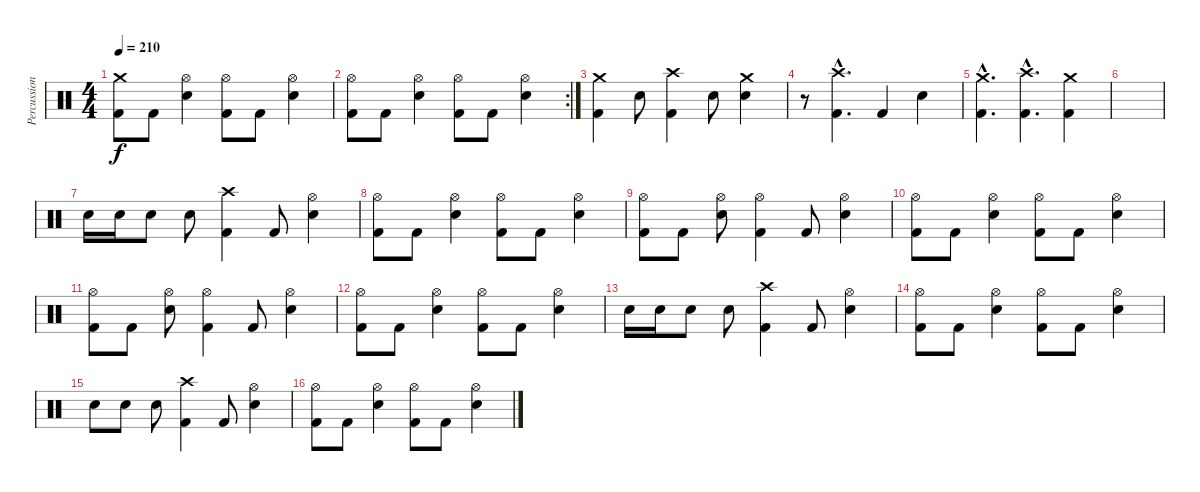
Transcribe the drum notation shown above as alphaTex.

\track ("Percussion" "Percussion") {instrument percussion}
\staff {score}
\articulation defaults
\ts (4 4)
\tempo 210
\clef neutral
\ks c
("Crash medium (hit)" "Kick (hit) 2").8{dy f} "Kick (hit) 2".8 ("Hi-Hat (open)" "Snare (hit) 2").4 ("Hi-Hat (open)" "Kick (hit) 2").8 "Kick (hit) 2".8 ("Hi-Hat (open)" "Snare (hit) 2").4 |
\rc 2
("Hi-Hat (open)" "Kick (hit) 2").8 "Kick (hit) 2".8 ("Hi-Hat (open)" "Snare (hit) 2").4 ("Hi-Hat (open)" "Kick (hit) 2").8 "Kick (hit) 2".8 ("Hi-Hat (open)" "Snare (hit) 2").4 |
("Crash medium (hit)" "Kick (hit) 2").4 "Snare (hit) 2".8 ("Crash high (hit)" "Kick (hit) 2").4 "Snare (hit) 2".8 ("Crash medium (hit)" "Snare (hit) 2").4 |
r.8 ("Crash high (hit)"{hac} "Kick (hit) 2"{hac}).4{d} "Kick (hit) 2".4 "Snare (hit) 2".4 |
("Crash medium (hit)"{hac} "Kick (hit) 2"{hac}).4{d} ("Crash high (hit)"{hac} "Kick (hit) 2"{hac}).4{d} ("Crash medium (hit)" "Kick (hit) 2").4 |
|
"Snare (hit) 2".16 "Snare (hit) 2".16 "Snare (hit) 2".8 "Snare (hit) 2".8 ("Crash high (hit)" "Kick (hit) 2").4 "Kick (hit) 2".8 ("Hi-Hat (open)" "Snare (hit) 2").4 |
("Hi-Hat (open)" "Kick (hit) 2").8 "Kick (hit) 2".8 ("Hi-Hat (open)" "Snare (hit) 2").4 ("Hi-Hat (open)" "Kick (hit) 2").8 "Kick (hit) 2".8 ("Hi-Hat (open)" "Snare (hit) 2").4 |
("Hi-Hat (open)" "Kick (hit) 2").8 "Kick (hit) 2".8 ("Hi-Hat (open)" "Snare (hit) 2").8 ("Hi-Hat (open)" "Kick (hit) 2").4 "Kick (hit) 2".8 ("Hi-Hat (open)" "Snare (hit) 2").4 |
("Hi-Hat (open)" "Kick (hit) 2").8 "Kick (hit) 2".8 ("Hi-Hat (open)" "Snare (hit) 2").4 ("Hi-Hat (open)" "Kick (hit) 2").8 "Kick (hit) 2".8 ("Hi-Hat (open)" "Snare (hit) 2").4 |
("Hi-Hat (open)" "Kick (hit) 2").8 "Kick (hit) 2".8 ("Hi-Hat (open)" "Snare (hit) 2").8 ("Hi-Hat (open)" "Kick (hit) 2").4 "Kick (hit) 2".8 ("Hi-Hat (open)" "Snare (hit) 2").4 |
("Hi-Hat (open)" "Kick (hit) 2").8 "Kick (hit) 2".8 ("Hi-Hat (open)" "Snare (hit) 2").4 ("Hi-Hat (open)" "Kick (hit) 2").8 "Kick (hit) 2".8 ("Hi-Hat (open)" "Snare (hit) 2").4 |
"Snare (hit) 2".16 "Snare (hit) 2".16 "Snare (hit) 2".8 "Snare (hit) 2".8 ("Crash high (hit)" "Kick (hit) 2").4 "Kick (hit) 2".8 ("Hi-Hat (open)" "Snare (hit) 2").4 |
("Hi-Hat (open)" "Kick (hit) 2").8 "Kick (hit) 2".8 ("Hi-Hat (open)" "Snare (hit) 2").4 ("Hi-Hat (open)" "Kick (hit) 2").8 "Kick (hit) 2".8 ("Hi-Hat (open)" "Snare (hit) 2").4 |
"Snare (hit) 2".8 "Snare (hit) 2".8 "Snare (hit) 2".8 ("Crash high (hit)" "Kick (hit) 2").4 "Kick (hit) 2".8 ("Hi-Hat (open)" "Snare (hit) 2").4 |
("Hi-Hat (open)" "Kick (hit) 2").8 "Kick (hit) 2".8 ("Hi-Hat (open)" "Snare (hit) 2").4 ("Hi-Hat (open)" "Kick (hit) 2").8 "Kick (hit) 2".8 ("Hi-Hat (open)" "Snare (hit) 2").4
